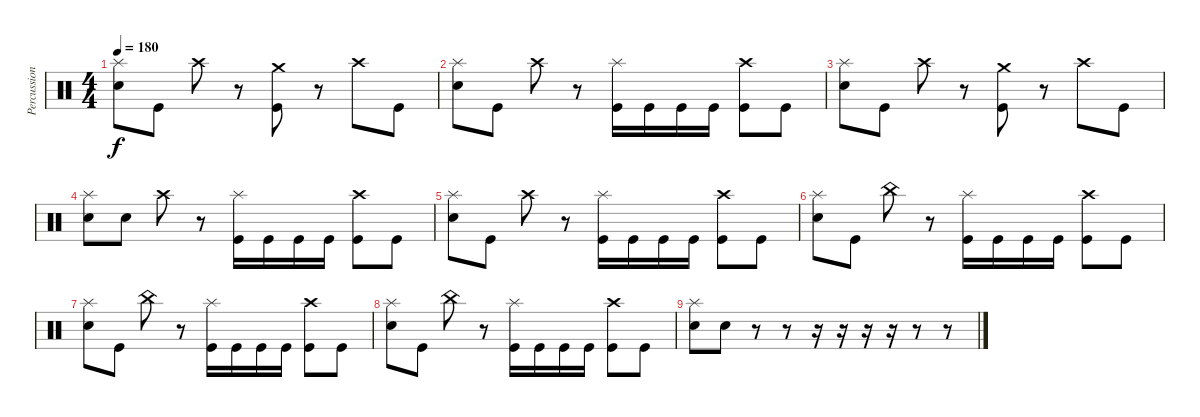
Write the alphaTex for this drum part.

\track ("Percussion" "Percussion") {instrument percussion}
\staff {score}
\articulation defaults
\ts (4 4)
\tempo 180
\clef neutral
\ks c
("Splash (hit)" "Snare (hit) 2").8{dy f} "Kick (hit)".8 "Crash high (hit)".8 r.8 ("Crash medium (hit)" "Kick (hit)").8 r.8 "Crash high (hit)".8 "Kick (hit)".8 |
("Splash (hit)" "Snare (hit) 2").8 "Kick (hit)".8 "Crash high (hit)".8 r.8 ("Splash (hit)" "Kick (hit)").16 "Kick (hit)".16 "Kick (hit)".16 "Kick (hit)".16 ("Crash high (hit)" "Kick (hit)").8 "Kick (hit)".8 |
("Splash (hit)" "Snare (hit) 2").8 "Kick (hit)".8 "Crash high (hit)".8 r.8 ("Crash medium (hit)" "Kick (hit)").8 r.8 "Crash high (hit)".8 "Kick (hit)".8 |
("Splash (hit)" "Snare (hit) 2").8 "Snare (hit) 2".8 "Crash high (hit)".8 r.8 ("Splash (hit)" "Kick (hit)").16 "Kick (hit)".16 "Kick (hit)".16 "Kick (hit)".16 ("Crash high (hit)" "Kick (hit)").8 "Kick (hit)".8 |
("Splash (hit)" "Snare (hit) 2").8 "Kick (hit)".8 "Crash high (hit)".8 r.8 ("Splash (hit)" "Kick (hit)").16 "Kick (hit)".16 "Kick (hit)".16 "Kick (hit)".16 ("Crash high (hit)" "Kick (hit)").8 "Kick (hit)".8 |
("Splash (hit)" "Snare (hit) 2").8 "Kick (hit)".8 "China (hit)".8 r.8 ("Splash (hit)" "Kick (hit)").16 "Kick (hit)".16 "Kick (hit)".16 "Kick (hit)".16 ("Crash high (hit)" "Kick (hit)").8 "Kick (hit)".8 |
("Splash (hit)" "Snare (hit) 2").8 "Kick (hit)".8 "China (hit)".8 r.8 ("Splash (hit)" "Kick (hit)").16 "Kick (hit)".16 "Kick (hit)".16 "Kick (hit)".16 ("Crash high (hit)" "Kick (hit)").8 "Kick (hit)".8 |
("Splash (hit)" "Snare (hit) 2").8 "Kick (hit)".8 "China (hit)".8 r.8 ("Splash (hit)" "Kick (hit)").16 "Kick (hit)".16 "Kick (hit)".16 "Kick (hit)".16 ("Crash high (hit)" "Kick (hit)").8 "Kick (hit)".8 |
("Splash (hit)" "Snare (hit) 2").8 "Snare (hit) 2".8 r.8 r.8 r.16 r.16 r.16 r.16 r.8 r.8
